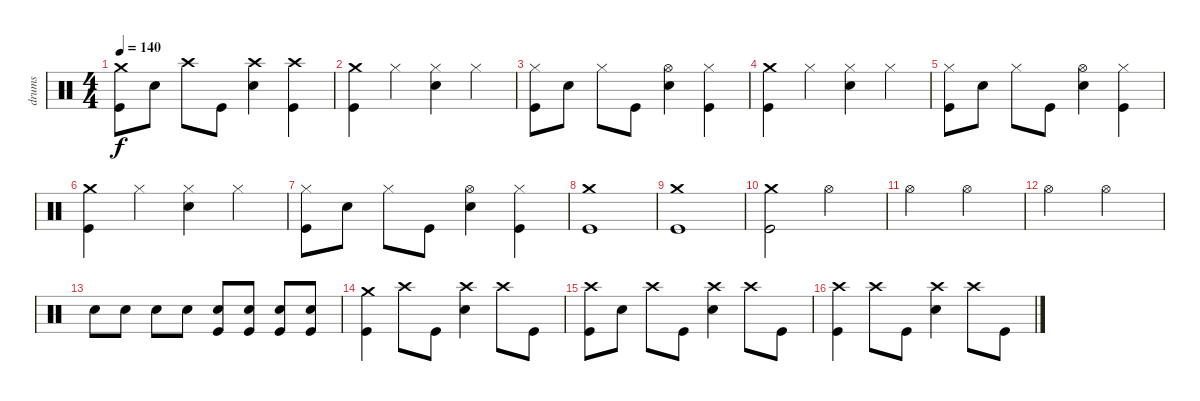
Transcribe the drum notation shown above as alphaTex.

\track ("drums" "drums") {instrument percussion}
\staff {score}
\articulation defaults
\ts (4 4)
\tempo 140
\clef neutral
\ks c
("Crash medium (hit)" "Kick (hit)").8{dy f} "Snare (hit) 2".8 "Crash high (hit)".8 "Kick (hit)".8 ("Crash high (hit)" "Snare (hit) 2").4 ("Crash high (hit)" "Kick (hit)").4 |
("Kick (hit)" "Crash medium (hit)").4 "Hi-Hat (closed)".4 ("Snare (hit) 2" "Hi-Hat (closed)").4 "Hi-Hat (closed)".4 |
("Kick (hit)" "Hi-Hat (closed)").8 "Snare (hit) 2".8 "Hi-Hat (closed)".8 "Kick (hit)".8 ("Snare (hit) 2" "Hi-Hat (open)").4 ("Kick (hit)" "Hi-Hat (closed)").4 |
("Kick (hit)" "Crash medium (hit)").4 "Hi-Hat (closed)".4 ("Snare (hit) 2" "Hi-Hat (closed)").4 "Hi-Hat (closed)".4 |
("Kick (hit)" "Hi-Hat (closed)").8 "Snare (hit) 2".8 "Hi-Hat (closed)".8 "Kick (hit)".8 ("Snare (hit) 2" "Hi-Hat (open)").4 ("Kick (hit)" "Hi-Hat (closed)").4 |
("Kick (hit)" "Crash medium (hit)").4 "Hi-Hat (closed)".4 ("Snare (hit) 2" "Hi-Hat (closed)").4 "Hi-Hat (closed)".4 |
("Kick (hit)" "Hi-Hat (closed)").8 "Snare (hit) 2".8 "Hi-Hat (closed)".8 "Kick (hit)".8 ("Snare (hit) 2" "Hi-Hat (open)").4 ("Kick (hit)" "Hi-Hat (closed)").4 |
("Kick (hit)" "Crash medium (hit)").1 |
("Crash medium (hit)" "Kick (hit)").1 |
("Crash medium (hit)" "Kick (hit)").2 "Hi-Hat (open)".2 |
"Hi-Hat (open)".2 "Hi-Hat (open)".2 |
"Hi-Hat (open)".2 "Hi-Hat (open)".2 |
"Snare (hit) 2".8 "Snare (hit) 2".8 "Snare (hit) 2".8 "Snare (hit) 2".8 ("Snare (hit) 2" "Kick (hit)").8 ("Snare (hit) 2" "Kick (hit)").8 ("Snare (hit) 2" "Kick (hit)").8 ("Snare (hit) 2" "Kick (hit)").8 |
("Crash medium (hit)" "Kick (hit)").4 "Crash high (hit)".8 "Kick (hit)".8 ("Crash high (hit)" "Snare (hit) 2").4 "Crash high (hit)".8 "Kick (hit)".8 |
("Crash high (hit)" "Kick (hit)").8 "Snare (hit) 2".8 "Crash high (hit)".8 "Kick (hit)".8 ("Crash high (hit)" "Snare (hit) 2").4 "Crash high (hit)".8 "Kick (hit)".8 |
("Crash high (hit)" "Kick (hit)").4 "Crash high (hit)".8 "Kick (hit)".8 ("Crash high (hit)" "Snare (hit) 2").4 "Crash high (hit)".8 "Kick (hit)".8
